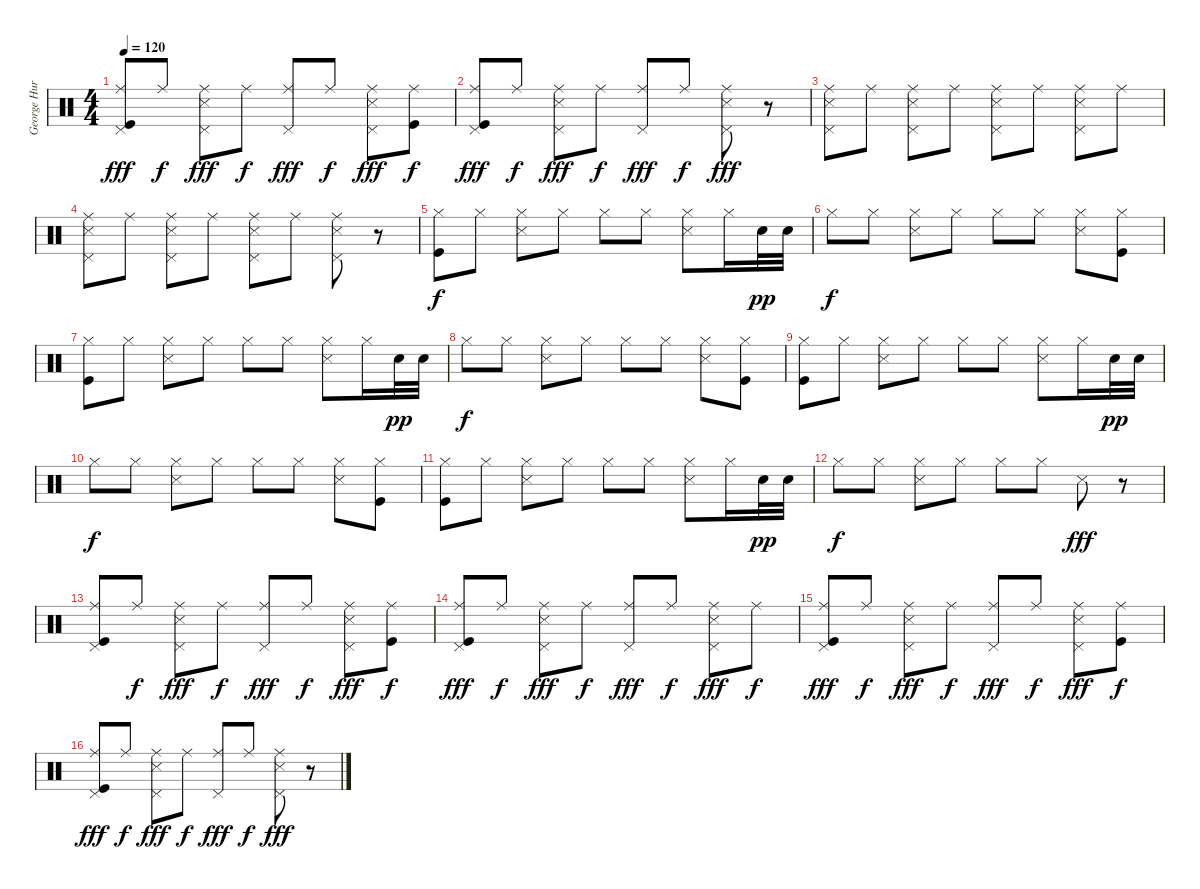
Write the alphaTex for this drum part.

\track ("George Hurley" "George Hur") {instrument percussion}
\staff {score}
\articulation defaults
\ts (4 4)
\tempo 120
\clef neutral
\ks c
("Ride (middle)" "Kick (hit)" "Pedal Hi-Hat (hit)").8{dy fff} "Ride (middle)".8{dy f} ("Ride (middle)" "Snare (side stick) 3" "Pedal Hi-Hat (hit)").8{dy fff} "Ride (middle)".8{dy f} ("Ride (middle)" "Pedal Hi-Hat (hit)").8{dy fff} "Ride (middle)".8{dy f} ("Ride (middle)" "Snare (side stick) 3" "Pedal Hi-Hat (hit)").8{dy fff} ("Ride (middle)" "Kick (hit)").8{dy f} |
("Ride (middle)" "Kick (hit)" "Pedal Hi-Hat (hit)").8{dy fff} "Ride (middle)".8{dy f} ("Ride (middle)" "Snare (side stick) 3" "Pedal Hi-Hat (hit)").8{dy fff} "Ride (middle)".8{dy f} ("Ride (middle)" "Pedal Hi-Hat (hit)").8{dy fff} "Ride (middle)".8{dy f} ("Ride (middle)" "Snare (side stick) 3" "Pedal Hi-Hat (hit)").8{dy fff} r.8 |
("Ride (middle)" "Snare (side stick) 3" "Pedal Hi-Hat (hit)").8 "Ride (middle)".8 ("Ride (middle)" "Snare (side stick) 3" "Pedal Hi-Hat (hit)").8 "Ride (middle)".8 ("Ride (middle)" "Snare (side stick) 3" "Pedal Hi-Hat (hit)").8 "Ride (middle)".8 ("Ride (middle)" "Snare (side stick) 3" "Pedal Hi-Hat (hit)").8 "Ride (middle)".8 |
("Ride (middle)" "Snare (side stick) 3" "Pedal Hi-Hat (hit)").8 "Ride (middle)".8 ("Ride (middle)" "Snare (side stick) 3" "Pedal Hi-Hat (hit)").8 "Ride (middle)".8 ("Ride (middle)" "Snare (side stick) 3" "Pedal Hi-Hat (hit)").8 "Ride (middle)".8 ("Ride (middle)" "Snare (side stick) 3" "Pedal Hi-Hat (hit)").8 r.8 |
("Hi-Hat (closed)" "Kick (hit)").8{dy f} "Hi-Hat (closed)".8 ("Hi-Hat (closed)" "Snare (side stick) 3").8 "Hi-Hat (closed)".8 "Hi-Hat (closed)".8 "Hi-Hat (closed)".8 ("Hi-Hat (closed)" "Snare (side stick) 3").8 "Hi-Hat (closed)".16 "Snare (hit) 2".32{dy pp} "Snare (hit) 2".32 |
"Hi-Hat (closed)".8{dy f} "Hi-Hat (closed)".8 ("Hi-Hat (closed)" "Snare (side stick) 3").8 "Hi-Hat (closed)".8 "Hi-Hat (closed)".8 "Hi-Hat (closed)".8 ("Hi-Hat (closed)" "Snare (side stick) 3").8 ("Hi-Hat (closed)" "Kick (hit)").8 |
("Hi-Hat (closed)" "Kick (hit)").8 "Hi-Hat (closed)".8 ("Hi-Hat (closed)" "Snare (side stick) 3").8 "Hi-Hat (closed)".8 "Hi-Hat (closed)".8 "Hi-Hat (closed)".8 ("Hi-Hat (closed)" "Snare (side stick) 3").8 "Hi-Hat (closed)".16 "Snare (hit) 2".32{dy pp} "Snare (hit) 2".32 |
"Hi-Hat (closed)".8{dy f} "Hi-Hat (closed)".8 ("Hi-Hat (closed)" "Snare (side stick) 3").8 "Hi-Hat (closed)".8 "Hi-Hat (closed)".8 "Hi-Hat (closed)".8 ("Hi-Hat (closed)" "Snare (side stick) 3").8 ("Hi-Hat (closed)" "Kick (hit)").8 |
("Hi-Hat (closed)" "Kick (hit)").8 "Hi-Hat (closed)".8 ("Hi-Hat (closed)" "Snare (side stick) 3").8 "Hi-Hat (closed)".8 "Hi-Hat (closed)".8 "Hi-Hat (closed)".8 ("Hi-Hat (closed)" "Snare (side stick) 3").8 "Hi-Hat (closed)".16 "Snare (hit) 2".32{dy pp} "Snare (hit) 2".32 |
"Hi-Hat (closed)".8{dy f} "Hi-Hat (closed)".8 ("Hi-Hat (closed)" "Snare (side stick) 3").8 "Hi-Hat (closed)".8 "Hi-Hat (closed)".8 "Hi-Hat (closed)".8 ("Hi-Hat (closed)" "Snare (side stick) 3").8 ("Hi-Hat (closed)" "Kick (hit)").8 |
("Hi-Hat (closed)" "Kick (hit)").8 "Hi-Hat (closed)".8 ("Hi-Hat (closed)" "Snare (side stick) 3").8 "Hi-Hat (closed)".8 "Hi-Hat (closed)".8 "Hi-Hat (closed)".8 ("Hi-Hat (closed)" "Snare (side stick) 3").8 "Hi-Hat (closed)".16 "Snare (hit) 2".32{dy pp} "Snare (hit) 2".32 |
"Hi-Hat (closed)".8{dy f} "Hi-Hat (closed)".8 ("Hi-Hat (closed)" "Snare (side stick) 3").8 "Hi-Hat (closed)".8 "Hi-Hat (closed)".8 "Hi-Hat (closed)".8 "Snare (side stick) 3".8{dy fff} r.8 |
("Ride (middle)" "Kick (hit)" "Pedal Hi-Hat (hit)").8 "Ride (middle)".8{dy f} ("Ride (middle)" "Snare (side stick) 3" "Pedal Hi-Hat (hit)").8{dy fff} "Ride (middle)".8{dy f} ("Ride (middle)" "Pedal Hi-Hat (hit)").8{dy fff} "Ride (middle)".8{dy f} ("Ride (middle)" "Snare (side stick) 3" "Pedal Hi-Hat (hit)").8{dy fff} ("Ride (middle)" "Kick (hit)").8{dy f} |
("Ride (middle)" "Kick (hit)" "Pedal Hi-Hat (hit)").8{dy fff} "Ride (middle)".8{dy f} ("Ride (middle)" "Snare (side stick) 3" "Pedal Hi-Hat (hit)").8{dy fff} "Ride (middle)".8{dy f} ("Ride (middle)" "Pedal Hi-Hat (hit)").8{dy fff} "Ride (middle)".8{dy f} ("Ride (middle)" "Snare (side stick) 3" "Pedal Hi-Hat (hit)").8{dy fff} "Ride (middle)".8{dy f} |
("Ride (middle)" "Kick (hit)" "Pedal Hi-Hat (hit)").8{dy fff} "Ride (middle)".8{dy f} ("Ride (middle)" "Snare (side stick) 3" "Pedal Hi-Hat (hit)").8{dy fff} "Ride (middle)".8{dy f} ("Ride (middle)" "Pedal Hi-Hat (hit)").8{dy fff} "Ride (middle)".8{dy f} ("Ride (middle)" "Snare (side stick) 3" "Pedal Hi-Hat (hit)").8{dy fff} ("Ride (middle)" "Kick (hit)").8{dy f} |
("Ride (middle)" "Kick (hit)" "Pedal Hi-Hat (hit)").8{dy fff} "Ride (middle)".8{dy f} ("Ride (middle)" "Snare (side stick) 3" "Pedal Hi-Hat (hit)").8{dy fff} "Ride (middle)".8{dy f} ("Ride (middle)" "Pedal Hi-Hat (hit)").8{dy fff} "Ride (middle)".8{dy f} ("Ride (middle)" "Snare (side stick) 3" "Pedal Hi-Hat (hit)").8{dy fff} r.8
